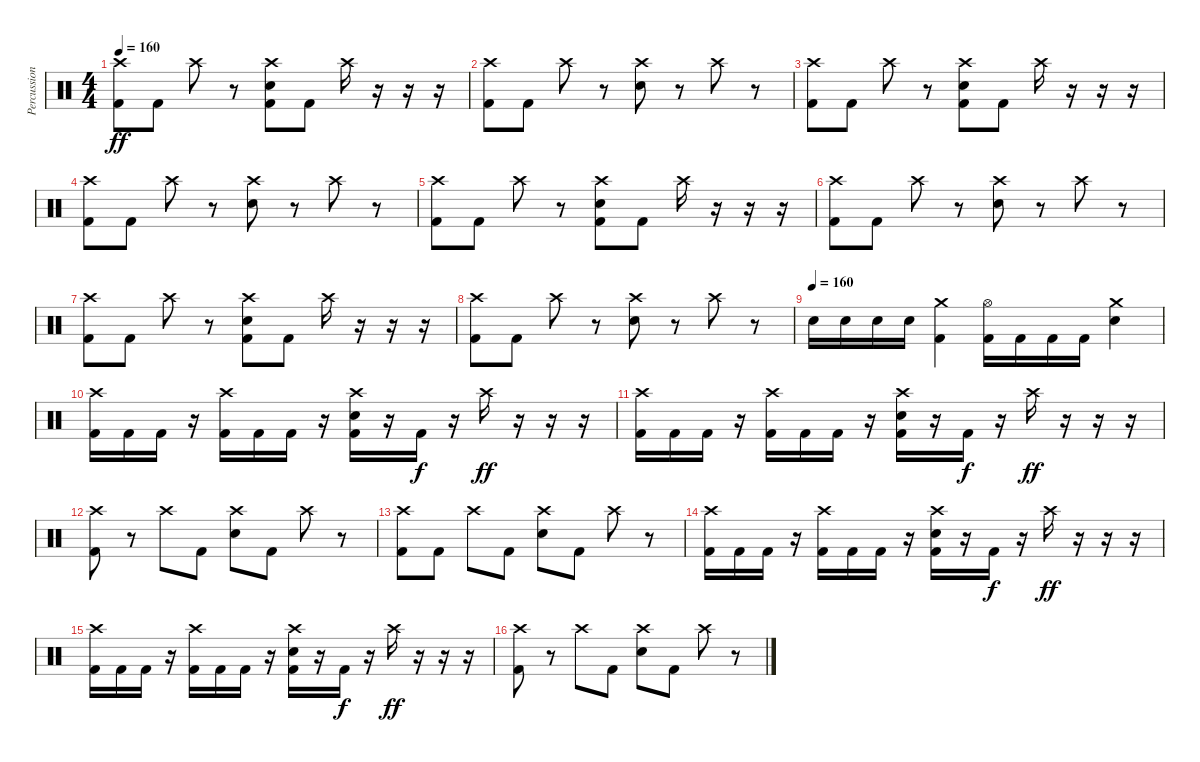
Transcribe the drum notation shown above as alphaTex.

\track ("Percussion" "Percussion") {instrument percussion}
\staff {score}
\articulation defaults
\ts (4 4)
\tempo 160
\clef neutral
\ks c
("Crash high (hit)" "Kick (hit) 2").8{dy ff} "Kick (hit) 2".8 "Crash high (hit)".8 r.8 ("Crash high (hit)" "Electric Snare (hit)" "Kick (hit) 2").8 "Kick (hit) 2".8 "Crash high (hit)".16 r.16 r.16 r.16 |
("Crash high (hit)" "Kick (hit) 2").8 "Kick (hit) 2".8 "Crash high (hit)".8 r.8 ("Crash high (hit)" "Electric Snare (hit)").8 r.8 "Crash high (hit)".8 r.8 |
("Crash high (hit)" "Kick (hit) 2").8 "Kick (hit) 2".8 "Crash high (hit)".8 r.8 ("Crash high (hit)" "Electric Snare (hit)" "Kick (hit) 2").8 "Kick (hit) 2".8 "Crash high (hit)".16 r.16 r.16 r.16 |
("Crash high (hit)" "Kick (hit) 2").8 "Kick (hit) 2".8 "Crash high (hit)".8 r.8 ("Crash high (hit)" "Electric Snare (hit)").8 r.8 "Crash high (hit)".8 r.8 |
("Crash high (hit)" "Kick (hit) 2").8 "Kick (hit) 2".8 "Crash high (hit)".8 r.8 ("Crash high (hit)" "Electric Snare (hit)" "Kick (hit) 2").8 "Kick (hit) 2".8 "Crash high (hit)".16 r.16 r.16 r.16 |
("Crash high (hit)" "Kick (hit) 2").8 "Kick (hit) 2".8 "Crash high (hit)".8 r.8 ("Crash high (hit)" "Electric Snare (hit)").8 r.8 "Crash high (hit)".8 r.8 |
("Crash high (hit)" "Kick (hit) 2").8 "Kick (hit) 2".8 "Crash high (hit)".8 r.8 ("Crash high (hit)" "Electric Snare (hit)" "Kick (hit) 2").8 "Kick (hit) 2".8 "Crash high (hit)".16 r.16 r.16 r.16 |
("Crash high (hit)" "Kick (hit) 2").8 "Kick (hit) 2".8 "Crash high (hit)".8 r.8 ("Crash high (hit)" "Electric Snare (hit)").8 r.8 "Crash high (hit)".8 r.8 |
\tempo (160)
"Electric Snare (hit)".16 "Electric Snare (hit)".16 "Electric Snare (hit)".16 "Electric Snare (hit)".16 ("Crash medium (hit)" "Kick (hit) 2").4 ("Hi-Hat (open)" "Kick (hit) 2").16 "Kick (hit) 2".16 "Kick (hit) 2".16 "Kick (hit) 2".16 ("Crash medium (hit)" "Electric Snare (hit)").4 |
("Crash high (hit)" "Kick (hit) 2").16 "Kick (hit) 2".16 "Kick (hit) 2".16 r.16 ("Crash high (hit)" "Kick (hit) 2").16 "Kick (hit) 2".16 "Kick (hit) 2".16 r.16 ("Crash high (hit)" "Electric Snare (hit)" "Kick (hit) 2").16 r.16 "Kick (hit) 2".16{dy f} r.16 "Crash high (hit)".16{dy ff} r.16 r.16 r.16 |
("Crash high (hit)" "Kick (hit) 2").16 "Kick (hit) 2".16 "Kick (hit) 2".16 r.16 ("Crash high (hit)" "Kick (hit) 2").16 "Kick (hit) 2".16 "Kick (hit) 2".16 r.16 ("Crash high (hit)" "Electric Snare (hit)" "Kick (hit) 2").16 r.16 "Kick (hit) 2".16{dy f} r.16 "Crash high (hit)".16{dy ff} r.16 r.16 r.16 |
("Crash high (hit)" "Kick (hit) 2").8 r.8 "Crash high (hit)".8 "Kick (hit) 2".8 ("Crash high (hit)" "Electric Snare (hit)").8 "Kick (hit) 2".8 "Crash high (hit)".8 r.8 |
("Crash high (hit)" "Kick (hit) 2").8 "Kick (hit) 2".8 "Crash high (hit)".8 "Kick (hit) 2".8 ("Crash high (hit)" "Electric Snare (hit)").8 "Kick (hit) 2".8 "Crash high (hit)".8 r.8 |
("Crash high (hit)" "Kick (hit) 2").16 "Kick (hit) 2".16 "Kick (hit) 2".16 r.16 ("Crash high (hit)" "Kick (hit) 2").16 "Kick (hit) 2".16 "Kick (hit) 2".16 r.16 ("Crash high (hit)" "Electric Snare (hit)" "Kick (hit) 2").16 r.16 "Kick (hit) 2".16{dy f} r.16 "Crash high (hit)".16{dy ff} r.16 r.16 r.16 |
("Crash high (hit)" "Kick (hit) 2").16 "Kick (hit) 2".16 "Kick (hit) 2".16 r.16 ("Crash high (hit)" "Kick (hit) 2").16 "Kick (hit) 2".16 "Kick (hit) 2".16 r.16 ("Crash high (hit)" "Electric Snare (hit)" "Kick (hit) 2").16 r.16 "Kick (hit) 2".16{dy f} r.16 "Crash high (hit)".16{dy ff} r.16 r.16 r.16 |
("Crash high (hit)" "Kick (hit) 2").8 r.8 "Crash high (hit)".8 "Kick (hit) 2".8 ("Crash high (hit)" "Electric Snare (hit)").8 "Kick (hit) 2".8 "Crash high (hit)".8 r.8
